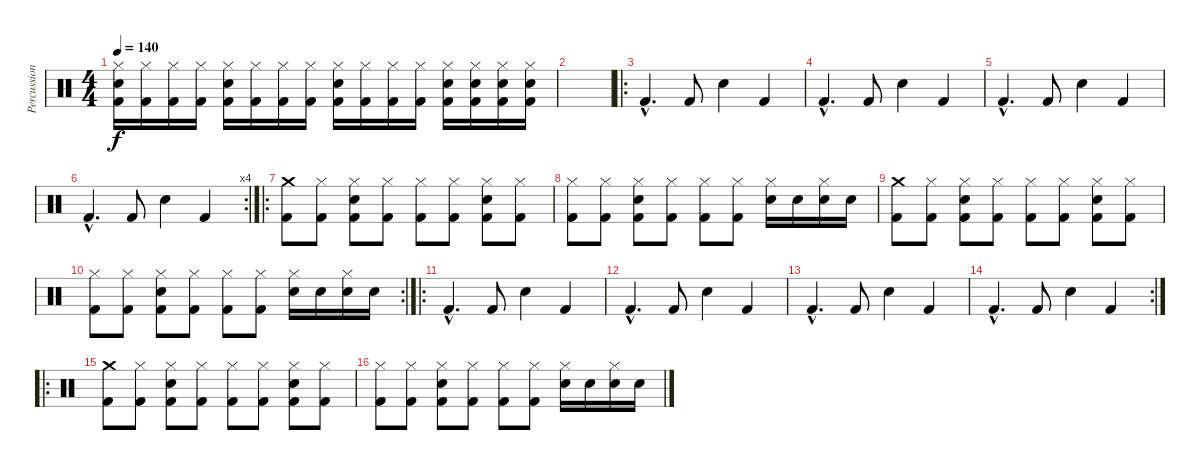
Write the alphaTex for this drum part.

\track ("Percussion" "Percussion") {instrument percussion}
\staff {score}
\articulation defaults
\ts (4 4)
\tempo 140
\clef neutral
\ks c
("Hi-Hat (closed)" "Snare (hit) 2" "Kick (hit) 2").16{dy f} ("Hi-Hat (closed)" "Kick (hit) 2").16 ("Hi-Hat (closed)" "Kick (hit) 2").16 ("Hi-Hat (closed)" "Kick (hit) 2").16 ("Hi-Hat (closed)" "Snare (hit) 2" "Kick (hit) 2").16 ("Hi-Hat (closed)" "Kick (hit) 2").16 ("Hi-Hat (closed)" "Kick (hit) 2").16 ("Hi-Hat (closed)" "Kick (hit) 2").16 ("Hi-Hat (closed)" "Snare (hit) 2" "Kick (hit) 2").16 ("Hi-Hat (closed)" "Kick (hit) 2").16 ("Hi-Hat (closed)" "Kick (hit) 2").16 ("Hi-Hat (closed)" "Kick (hit) 2").16 ("Hi-Hat (closed)" "Snare (hit) 2" "Kick (hit) 2").16 ("Hi-Hat (closed)" "Snare (hit) 2" "Kick (hit) 2").16 ("Hi-Hat (closed)" "Snare (hit) 2" "Kick (hit) 2").16 ("Hi-Hat (closed)" "Snare (hit) 2" "Kick (hit) 2").16 |
|
\ro "Kick (hit) 2"{hac}.4{d} "Kick (hit) 2".8 "Snare (hit) 2".4 "Kick (hit) 2".4
|
"Kick (hit) 2"{hac}.4{d} "Kick (hit) 2".8 "Snare (hit) 2".4 "Kick (hit) 2".4 |
"Kick (hit) 2"{hac}.4{d} "Kick (hit) 2".8 "Snare (hit) 2".4 "Kick (hit) 2".4 |
\rc 4 "Kick (hit) 2"{hac}.4{d} "Kick (hit) 2".8 "Snare (hit) 2".4 "Kick (hit) 2".4
|
\ro
("Crash medium (hit)" "Kick (hit) 2").8 ("Hi-Hat (closed)" "Kick (hit) 2").8 ("Hi-Hat (closed)" "Snare (hit) 2" "Kick (hit) 2").8 ("Hi-Hat (closed)" "Kick (hit) 2").8 ("Hi-Hat (closed)" "Kick (hit) 2").8 ("Hi-Hat (closed)" "Kick (hit) 2").8 ("Hi-Hat (closed)" "Snare (hit) 2" "Kick (hit) 2").8 ("Hi-Hat (closed)" "Kick (hit) 2").8 |
("Hi-Hat (closed)" "Kick (hit) 2").8 ("Hi-Hat (closed)" "Kick (hit) 2").8 ("Hi-Hat (closed)" "Snare (hit) 2" "Kick (hit) 2").8 ("Hi-Hat (closed)" "Kick (hit) 2").8 ("Hi-Hat (closed)" "Kick (hit) 2").8 ("Hi-Hat (closed)" "Kick (hit) 2").8 ("Hi-Hat (closed)" "Snare (hit) 2").16 "Snare (hit) 2".16 ("Hi-Hat (closed)" "Snare (hit) 2").16 "Snare (hit) 2".16 |
("Crash medium (hit)" "Kick (hit) 2").8 ("Hi-Hat (closed)" "Kick (hit) 2").8 ("Hi-Hat (closed)" "Snare (hit) 2" "Kick (hit) 2").8 ("Hi-Hat (closed)" "Kick (hit) 2").8 ("Hi-Hat (closed)" "Kick (hit) 2").8 ("Hi-Hat (closed)" "Kick (hit) 2").8 ("Hi-Hat (closed)" "Snare (hit) 2" "Kick (hit) 2").8 ("Hi-Hat (closed)" "Kick (hit) 2").8 |
\rc 2
("Hi-Hat (closed)" "Kick (hit) 2").8 ("Hi-Hat (closed)" "Kick (hit) 2").8 ("Hi-Hat (closed)" "Snare (hit) 2" "Kick (hit) 2").8 ("Hi-Hat (closed)" "Kick (hit) 2").8 ("Hi-Hat (closed)" "Kick (hit) 2").8 ("Hi-Hat (closed)" "Kick (hit) 2").8 ("Hi-Hat (closed)" "Snare (hit) 2").16 "Snare (hit) 2".16 ("Hi-Hat (closed)" "Snare (hit) 2").16 "Snare (hit) 2".16 |
\ro "Kick (hit) 2"{hac}.4{d} "Kick (hit) 2".8 "Snare (hit) 2".4 "Kick (hit) 2".4
|
"Kick (hit) 2"{hac}.4{d} "Kick (hit) 2".8 "Snare (hit) 2".4 "Kick (hit) 2".4 |
"Kick (hit) 2"{hac}.4{d} "Kick (hit) 2".8 "Snare (hit) 2".4 "Kick (hit) 2".4 |
\rc 2 "Kick (hit) 2"{hac}.4{d} "Kick (hit) 2".8 "Snare (hit) 2".4 "Kick (hit) 2".4
|
\ro
("Crash medium (hit)" "Kick (hit) 2").8 ("Hi-Hat (closed)" "Kick (hit) 2").8 ("Hi-Hat (closed)" "Snare (hit) 2" "Kick (hit) 2").8 ("Hi-Hat (closed)" "Kick (hit) 2").8 ("Hi-Hat (closed)" "Kick (hit) 2").8 ("Hi-Hat (closed)" "Kick (hit) 2").8 ("Hi-Hat (closed)" "Snare (hit) 2" "Kick (hit) 2").8 ("Hi-Hat (closed)" "Kick (hit) 2").8 |
("Hi-Hat (closed)" "Kick (hit) 2").8 ("Hi-Hat (closed)" "Kick (hit) 2").8 ("Hi-Hat (closed)" "Snare (hit) 2" "Kick (hit) 2").8 ("Hi-Hat (closed)" "Kick (hit) 2").8 ("Hi-Hat (closed)" "Kick (hit) 2").8 ("Hi-Hat (closed)" "Kick (hit) 2").8 ("Hi-Hat (closed)" "Snare (hit) 2").16 "Snare (hit) 2".16 ("Hi-Hat (closed)" "Snare (hit) 2").16 "Snare (hit) 2".16
